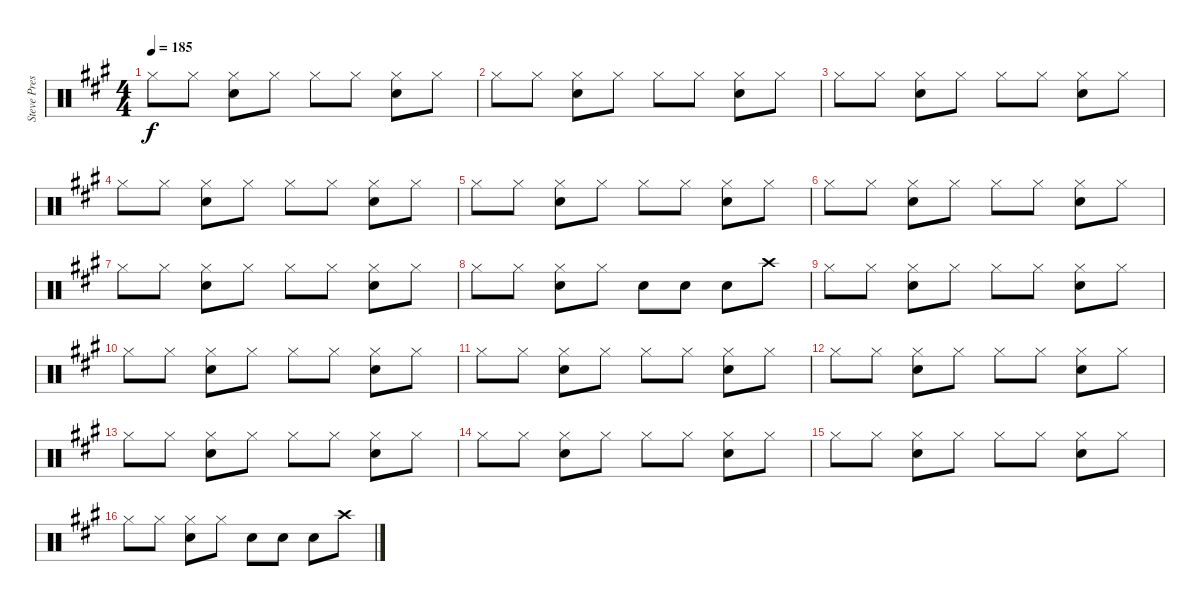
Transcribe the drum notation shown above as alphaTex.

\track ("Steve Preswhich" "Steve Pres") {instrument percussion}
\staff {score}
\articulation defaults
\ts (4 4)
\tempo 185
\clef neutral
\ks a "Hi-Hat (closed)".8{dy f} "Hi-Hat (closed)".8
("Hi-Hat (closed)" "Electric Snare (hit)").8 "Hi-Hat (closed)".8 "Hi-Hat (closed)".8 "Hi-Hat (closed)".8 ("Hi-Hat (closed)" "Electric Snare (hit)").8 "Hi-Hat (closed)".8 |
"Hi-Hat (closed)".8 "Hi-Hat (closed)".8 ("Hi-Hat (closed)" "Electric Snare (hit)").8 "Hi-Hat (closed)".8 "Hi-Hat (closed)".8 "Hi-Hat (closed)".8 ("Hi-Hat (closed)" "Electric Snare (hit)").8 "Hi-Hat (closed)".8 |
"Hi-Hat (closed)".8 "Hi-Hat (closed)".8 ("Hi-Hat (closed)" "Electric Snare (hit)").8 "Hi-Hat (closed)".8 "Hi-Hat (closed)".8 "Hi-Hat (closed)".8 ("Hi-Hat (closed)" "Electric Snare (hit)").8 "Hi-Hat (closed)".8 |
"Hi-Hat (closed)".8 "Hi-Hat (closed)".8 ("Hi-Hat (closed)" "Electric Snare (hit)").8 "Hi-Hat (closed)".8 "Hi-Hat (closed)".8 "Hi-Hat (closed)".8 ("Hi-Hat (closed)" "Electric Snare (hit)").8 "Hi-Hat (closed)".8 |
"Hi-Hat (closed)".8 "Hi-Hat (closed)".8 ("Hi-Hat (closed)" "Electric Snare (hit)").8 "Hi-Hat (closed)".8 "Hi-Hat (closed)".8 "Hi-Hat (closed)".8 ("Hi-Hat (closed)" "Electric Snare (hit)").8 "Hi-Hat (closed)".8 |
"Hi-Hat (closed)".8 "Hi-Hat (closed)".8 ("Hi-Hat (closed)" "Electric Snare (hit)").8 "Hi-Hat (closed)".8 "Hi-Hat (closed)".8 "Hi-Hat (closed)".8 ("Hi-Hat (closed)" "Electric Snare (hit)").8 "Hi-Hat (closed)".8 |
"Hi-Hat (closed)".8 "Hi-Hat (closed)".8 ("Hi-Hat (closed)" "Electric Snare (hit)").8 "Hi-Hat (closed)".8 "Hi-Hat (closed)".8 "Hi-Hat (closed)".8 ("Hi-Hat (closed)" "Electric Snare (hit)").8 "Hi-Hat (closed)".8 |
"Hi-Hat (closed)".8 "Hi-Hat (closed)".8 ("Hi-Hat (closed)" "Electric Snare (hit)").8 "Hi-Hat (closed)".8 "Snare (hit) 2".8 "Snare (hit) 2".8 "Snare (hit) 2".8 "Crash high (hit)".8 |
"Hi-Hat (closed)".8 "Hi-Hat (closed)".8 ("Hi-Hat (closed)" "Electric Snare (hit)").8 "Hi-Hat (closed)".8 "Hi-Hat (closed)".8 "Hi-Hat (closed)".8 ("Hi-Hat (closed)" "Electric Snare (hit)").8 "Hi-Hat (closed)".8 |
"Hi-Hat (closed)".8 "Hi-Hat (closed)".8 ("Hi-Hat (closed)" "Electric Snare (hit)").8 "Hi-Hat (closed)".8 "Hi-Hat (closed)".8 "Hi-Hat (closed)".8 ("Hi-Hat (closed)" "Electric Snare (hit)").8 "Hi-Hat (closed)".8 |
"Hi-Hat (closed)".8 "Hi-Hat (closed)".8 ("Hi-Hat (closed)" "Electric Snare (hit)").8 "Hi-Hat (closed)".8 "Hi-Hat (closed)".8 "Hi-Hat (closed)".8 ("Hi-Hat (closed)" "Electric Snare (hit)").8 "Hi-Hat (closed)".8 |
"Hi-Hat (closed)".8 "Hi-Hat (closed)".8 ("Hi-Hat (closed)" "Electric Snare (hit)").8 "Hi-Hat (closed)".8 "Hi-Hat (closed)".8 "Hi-Hat (closed)".8 ("Hi-Hat (closed)" "Electric Snare (hit)").8 "Hi-Hat (closed)".8 |
"Hi-Hat (closed)".8 "Hi-Hat (closed)".8 ("Hi-Hat (closed)" "Electric Snare (hit)").8 "Hi-Hat (closed)".8 "Hi-Hat (closed)".8 "Hi-Hat (closed)".8 ("Hi-Hat (closed)" "Electric Snare (hit)").8 "Hi-Hat (closed)".8 |
"Hi-Hat (closed)".8 "Hi-Hat (closed)".8 ("Hi-Hat (closed)" "Electric Snare (hit)").8 "Hi-Hat (closed)".8 "Hi-Hat (closed)".8 "Hi-Hat (closed)".8 ("Hi-Hat (closed)" "Electric Snare (hit)").8 "Hi-Hat (closed)".8 |
"Hi-Hat (closed)".8 "Hi-Hat (closed)".8 ("Hi-Hat (closed)" "Electric Snare (hit)").8 "Hi-Hat (closed)".8 "Hi-Hat (closed)".8 "Hi-Hat (closed)".8 ("Hi-Hat (closed)" "Electric Snare (hit)").8 "Hi-Hat (closed)".8 |
"Hi-Hat (closed)".8 "Hi-Hat (closed)".8 ("Hi-Hat (closed)" "Electric Snare (hit)").8 "Hi-Hat (closed)".8 "Snare (hit) 2".8 "Snare (hit) 2".8 "Snare (hit) 2".8 "Crash high (hit)".8
